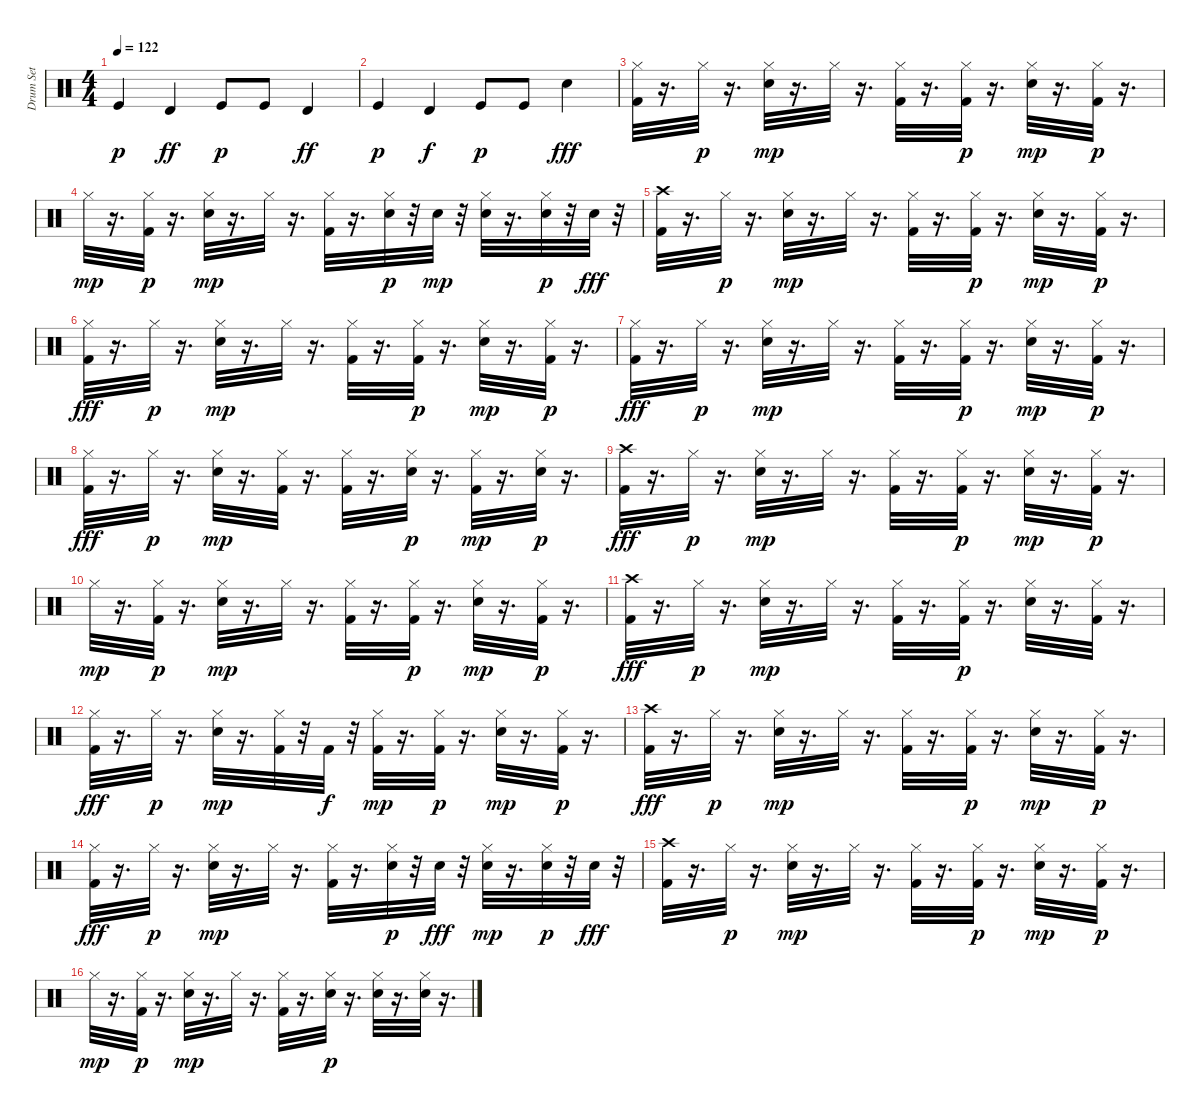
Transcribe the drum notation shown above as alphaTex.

\track ("Drum Set" "Drum Set") {instrument percussion}
\staff {score}
\articulation defaults
\ts (4 4)
\tempo 122
\clef neutral
\ks c "Kick (hit)".4{dy p} "Timbale high (hit)".4{dy ff} "Kick (hit)".8{dy p} "Kick (hit)".8 "Timbale high (hit)".4{dy ff}
|
"Kick (hit)".4{dy p} "Timbale high (hit)".4{dy f} "Kick (hit)".8{dy p} "Kick (hit)".8 "Electric Snare (hit)".4{dy fff} |
("Hi-Hat (closed)" "Kick (hit) 2").32 r.16{d} "Hi-Hat (closed)".32{dy p} r.16{d} ("Electric Snare (hit)" "Hi-Hat (closed)").32{dy mp} r.16{d} "Hi-Hat (closed)".32 r.16{d} ("Kick (hit) 2" "Hi-Hat (closed)").32 r.16{d} ("Kick (hit) 2" "Hi-Hat (closed)").32{dy p} r.16{d} ("Electric Snare (hit)" "Hi-Hat (closed)").32{dy mp} r.16{d} ("Kick (hit) 2" "Hi-Hat (closed)").32{dy p} r.16{d} |
"Hi-Hat (closed)".32{dy mp} r.16{d} ("Kick (hit) 2" "Hi-Hat (closed)").32{dy p} r.16{d} ("Electric Snare (hit)" "Hi-Hat (closed)").32{dy mp} r.16{d} "Hi-Hat (closed)".32 r.16{d} ("Kick (hit) 2" "Hi-Hat (closed)").32 r.16{d} ("Electric Snare (hit)" "Hi-Hat (closed)").32{dy p} r.32 "Electric Snare (hit)".32{dy mp} r.32 ("Electric Snare (hit)" "Hi-Hat (closed)").32 r.16{d} ("Electric Snare (hit)" "Hi-Hat (closed)").32{dy p} r.32 "Electric Snare (hit)".32{dy fff} r.32 |
("Crash high (hit)" "Kick (hit) 2").32 r.16{d} "Hi-Hat (closed)".32{dy p} r.16{d} ("Electric Snare (hit)" "Hi-Hat (closed)").32{dy mp} r.16{d} "Hi-Hat (closed)".32 r.16{d} ("Kick (hit) 2" "Hi-Hat (closed)").32 r.16{d} ("Kick (hit) 2" "Hi-Hat (closed)").32{dy p} r.16{d} ("Electric Snare (hit)" "Hi-Hat (closed)").32{dy mp} r.16{d} ("Kick (hit) 2" "Hi-Hat (closed)").32{dy p} r.16{d} |
("Hi-Hat (closed)" "Kick (hit) 2").32{dy fff} r.16{d} "Hi-Hat (closed)".32{dy p} r.16{d} ("Electric Snare (hit)" "Hi-Hat (closed)").32{dy mp} r.16{d} "Hi-Hat (closed)".32 r.16{d} ("Kick (hit) 2" "Hi-Hat (closed)").32 r.16{d} ("Kick (hit) 2" "Hi-Hat (closed)").32{dy p} r.16{d} ("Electric Snare (hit)" "Hi-Hat (closed)").32{dy mp} r.16{d} ("Kick (hit) 2" "Hi-Hat (closed)").32{dy p} r.16{d} |
("Hi-Hat (closed)" "Kick (hit) 2").32{dy fff} r.16{d} "Hi-Hat (closed)".32{dy p} r.16{d} ("Electric Snare (hit)" "Hi-Hat (closed)").32{dy mp} r.16{d} "Hi-Hat (closed)".32 r.16{d} ("Kick (hit) 2" "Hi-Hat (closed)").32 r.16{d} ("Kick (hit) 2" "Hi-Hat (closed)").32{dy p} r.16{d} ("Electric Snare (hit)" "Hi-Hat (closed)").32{dy mp} r.16{d} ("Kick (hit) 2" "Hi-Hat (closed)").32{dy p} r.16{d} |
("Hi-Hat (closed)" "Kick (hit) 2").32{dy fff} r.16{d} "Hi-Hat (closed)".32{dy p} r.16{d} ("Electric Snare (hit)" "Hi-Hat (closed)").32{dy mp} r.16{d} ("Kick (hit) 2" "Hi-Hat (closed)").32 r.16{d} ("Kick (hit) 2" "Hi-Hat (closed)").32 r.16{d} ("Electric Snare (hit)" "Hi-Hat (closed)").32{dy p} r.16{d} ("Kick (hit) 2" "Hi-Hat (closed)").32{dy mp} r.16{d} ("Electric Snare (hit)" "Hi-Hat (closed)").32{dy p} r.16{d} |
("Crash high (hit)" "Kick (hit) 2").32{dy fff} r.16{d} "Hi-Hat (closed)".32{dy p} r.16{d} ("Electric Snare (hit)" "Hi-Hat (closed)").32{dy mp} r.16{d} "Hi-Hat (closed)".32 r.16{d} ("Kick (hit) 2" "Hi-Hat (closed)").32 r.16{d} ("Kick (hit) 2" "Hi-Hat (closed)").32{dy p} r.16{d} ("Electric Snare (hit)" "Hi-Hat (closed)").32{dy mp} r.16{d} ("Kick (hit) 2" "Hi-Hat (closed)").32{dy p} r.16{d} |
"Hi-Hat (closed)".32{dy mp} r.16{d} ("Kick (hit) 2" "Hi-Hat (closed)").32{dy p} r.16{d} ("Electric Snare (hit)" "Hi-Hat (closed)").32{dy mp} r.16{d} "Hi-Hat (closed)".32 r.16{d} ("Kick (hit) 2" "Hi-Hat (closed)").32 r.16{d} ("Kick (hit) 2" "Hi-Hat (closed)").32{dy p} r.16{d} ("Electric Snare (hit)" "Hi-Hat (closed)").32{dy mp} r.16{d} ("Kick (hit) 2" "Hi-Hat (closed)").32{dy p} r.16{d} |
("Crash high (hit)" "Kick (hit) 2").32{dy fff} r.16{d} "Hi-Hat (closed)".32{dy p} r.16{d} ("Electric Snare (hit)" "Hi-Hat (closed)").32{dy mp} r.16{d} "Hi-Hat (closed)".32 r.16{d} ("Kick (hit) 2" "Hi-Hat (closed)").32 r.16{d} ("Kick (hit) 2" "Hi-Hat (closed)").32{dy p} r.16{d} ("Electric Snare (hit)" "Hi-Hat (closed)").32 r.16{d} ("Kick (hit) 2" "Hi-Hat (closed)").32 r.16{d} |
("Hi-Hat (closed)" "Kick (hit) 2").32{dy fff} r.16{d} "Hi-Hat (closed)".32{dy p} r.16{d} ("Electric Snare (hit)" "Hi-Hat (closed)").32{dy mp} r.16{d} ("Kick (hit) 2" "Hi-Hat (closed)").32 r.32 "Kick (hit) 2".32{dy f} r.32 ("Kick (hit) 2" "Hi-Hat (closed)").32{dy mp} r.16{d} ("Kick (hit) 2" "Hi-Hat (closed)").32{dy p} r.16{d} ("Electric Snare (hit)" "Hi-Hat (closed)").32{dy mp} r.16{d} ("Kick (hit) 2" "Hi-Hat (closed)").32{dy p} r.16{d} |
("Crash high (hit)" "Kick (hit) 2").32{dy fff} r.16{d} "Hi-Hat (closed)".32{dy p} r.16{d} ("Electric Snare (hit)" "Hi-Hat (closed)").32{dy mp} r.16{d} "Hi-Hat (closed)".32 r.16{d} ("Kick (hit) 2" "Hi-Hat (closed)").32 r.16{d} ("Kick (hit) 2" "Hi-Hat (closed)").32{dy p} r.16{d} ("Electric Snare (hit)" "Hi-Hat (closed)").32{dy mp} r.16{d} ("Kick (hit) 2" "Hi-Hat (closed)").32{dy p} r.16{d} |
("Hi-Hat (closed)" "Kick (hit) 2").32{dy fff} r.16{d} "Hi-Hat (closed)".32{dy p} r.16{d} ("Electric Snare (hit)" "Hi-Hat (closed)").32{dy mp} r.16{d} "Hi-Hat (closed)".32 r.16{d} ("Kick (hit) 2" "Hi-Hat (closed)").32 r.16{d} ("Electric Snare (hit)" "Hi-Hat (closed)").32{dy p} r.32 "Electric Snare (hit)".32{dy fff} r.32 ("Electric Snare (hit)" "Hi-Hat (closed)").32{dy mp} r.16{d} ("Electric Snare (hit)" "Hi-Hat (closed)").32{dy p} r.32 "Electric Snare (hit)".32{dy fff} r.32 |
("Crash high (hit)" "Kick (hit) 2").32 r.16{d} "Hi-Hat (closed)".32{dy p} r.16{d} ("Electric Snare (hit)" "Hi-Hat (closed)").32{dy mp} r.16{d} "Hi-Hat (closed)".32 r.16{d} ("Kick (hit) 2" "Hi-Hat (closed)").32 r.16{d} ("Kick (hit) 2" "Hi-Hat (closed)").32{dy p} r.16{d} ("Electric Snare (hit)" "Hi-Hat (closed)").32{dy mp} r.16{d} ("Kick (hit) 2" "Hi-Hat (closed)").32{dy p} r.16{d} |
"Hi-Hat (closed)".32{dy mp} r.16{d} ("Kick (hit) 2" "Hi-Hat (closed)").32{dy p} r.16{d} ("Electric Snare (hit)" "Hi-Hat (closed)").32{dy mp} r.16{d} "Hi-Hat (closed)".32 r.16{d} ("Kick (hit) 2" "Hi-Hat (closed)").32 r.16{d} ("Electric Snare (hit)" "Hi-Hat (closed)").32{dy p} r.16{d} ("Electric Snare (hit)" "Hi-Hat (closed)").32 r.16{d} ("Electric Snare (hit)" "Hi-Hat (closed)").32 r.16{d}
